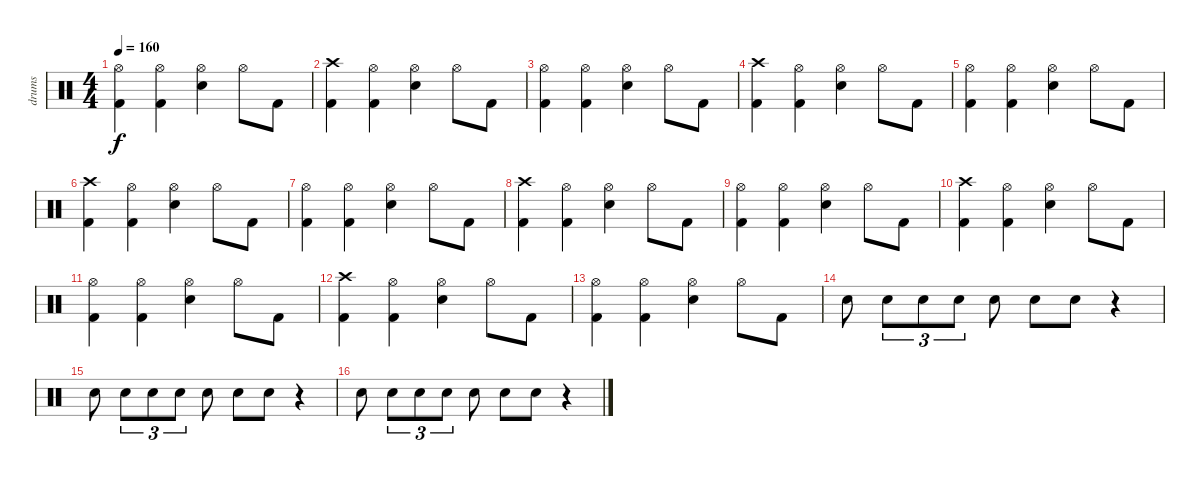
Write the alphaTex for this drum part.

\track ("drums" "drums") {instrument percussion}
\staff {score}
\articulation defaults
\ts (4 4)
\tempo 160
\clef neutral
\ks c
("Hi-Hat (open)" "Kick (hit) 2").4{dy f} ("Hi-Hat (open)" "Kick (hit) 2").4 ("Hi-Hat (open)" "Snare (hit) 2").4 "Hi-Hat (open)".8 "Kick (hit) 2".8 |
("Crash high (hit)" "Kick (hit) 2").4 ("Hi-Hat (open)" "Kick (hit) 2").4 ("Hi-Hat (open)" "Snare (hit) 2").4 "Hi-Hat (open)".8 "Kick (hit) 2".8 |
("Hi-Hat (open)" "Kick (hit) 2").4 ("Hi-Hat (open)" "Kick (hit) 2").4 ("Hi-Hat (open)" "Snare (hit) 2").4 "Hi-Hat (open)".8 "Kick (hit) 2".8 |
("Crash high (hit)" "Kick (hit) 2").4 ("Hi-Hat (open)" "Kick (hit) 2").4 ("Hi-Hat (open)" "Snare (hit) 2").4 "Hi-Hat (open)".8 "Kick (hit) 2".8 |
("Hi-Hat (open)" "Kick (hit) 2").4 ("Hi-Hat (open)" "Kick (hit) 2").4 ("Hi-Hat (open)" "Snare (hit) 2").4 "Hi-Hat (open)".8 "Kick (hit) 2".8 |
("Crash high (hit)" "Kick (hit) 2").4 ("Hi-Hat (open)" "Kick (hit) 2").4 ("Hi-Hat (open)" "Snare (hit) 2").4 "Hi-Hat (open)".8 "Kick (hit) 2".8 |
("Hi-Hat (open)" "Kick (hit) 2").4 ("Hi-Hat (open)" "Kick (hit) 2").4 ("Hi-Hat (open)" "Snare (hit) 2").4 "Hi-Hat (open)".8 "Kick (hit) 2".8 |
("Crash high (hit)" "Kick (hit) 2").4 ("Hi-Hat (open)" "Kick (hit) 2").4 ("Hi-Hat (open)" "Snare (hit) 2").4 "Hi-Hat (open)".8 "Kick (hit) 2".8 |
("Hi-Hat (open)" "Kick (hit) 2").4 ("Hi-Hat (open)" "Kick (hit) 2").4 ("Hi-Hat (open)" "Snare (hit) 2").4 "Hi-Hat (open)".8 "Kick (hit) 2".8 |
("Crash high (hit)" "Kick (hit) 2").4 ("Hi-Hat (open)" "Kick (hit) 2").4 ("Hi-Hat (open)" "Snare (hit) 2").4 "Hi-Hat (open)".8 "Kick (hit) 2".8 |
("Hi-Hat (open)" "Kick (hit) 2").4 ("Hi-Hat (open)" "Kick (hit) 2").4 ("Hi-Hat (open)" "Snare (hit) 2").4 "Hi-Hat (open)".8 "Kick (hit) 2".8 |
("Crash high (hit)" "Kick (hit) 2").4 ("Hi-Hat (open)" "Kick (hit) 2").4 ("Hi-Hat (open)" "Snare (hit) 2").4 "Hi-Hat (open)".8 "Kick (hit) 2".8 |
("Hi-Hat (open)" "Kick (hit) 2").4 ("Hi-Hat (open)" "Kick (hit) 2").4 ("Hi-Hat (open)" "Snare (hit) 2").4 "Hi-Hat (open)".8 "Kick (hit) 2".8 |
"Snare (hit) 2".8 "Snare (hit) 2".8{tu (3 2)} "Snare (hit) 2".8{tu (3 2)} "Snare (hit) 2".8{tu (3 2)} "Snare (hit) 2".8 "Snare (hit) 2".8 "Snare (hit) 2".8 r.4 |
"Snare (hit) 2".8 "Snare (hit) 2".8{tu (3 2)} "Snare (hit) 2".8{tu (3 2)} "Snare (hit) 2".8{tu (3 2)} "Snare (hit) 2".8 "Snare (hit) 2".8 "Snare (hit) 2".8 r.4 |
"Snare (hit) 2".8 "Snare (hit) 2".8{tu (3 2)} "Snare (hit) 2".8{tu (3 2)} "Snare (hit) 2".8{tu (3 2)} "Snare (hit) 2".8 "Snare (hit) 2".8 "Snare (hit) 2".8 r.4
